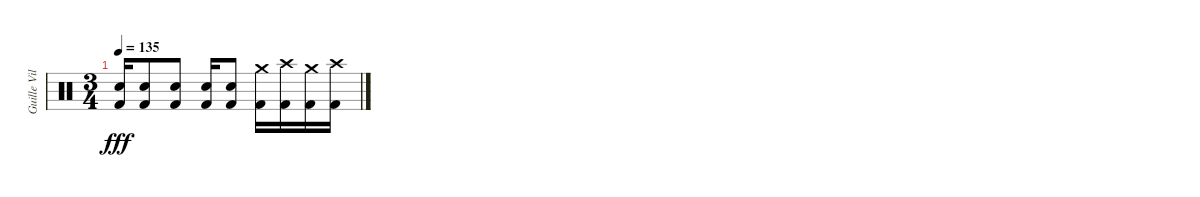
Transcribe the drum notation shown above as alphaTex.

\track ("Guille Vila" "Guille Vil") {instrument percussion}
\staff {score}
\articulation defaults
\ts (3 4)
\tempo 135
\clef neutral
\ks c
("Snare (hit) 2" "Kick (hit) 2").16{dy fff} ("Snare (hit) 2" "Kick (hit) 2").8 ("Snare (hit) 2" "Kick (hit) 2").8 ("Snare (hit) 2" "Kick (hit) 2").16 ("Snare (hit) 2" "Kick (hit) 2").8 ("Crash medium (hit)" "Kick (hit) 2").16 ("Crash high (hit)" "Kick (hit) 2").16 ("Crash medium (hit)" "Kick (hit) 2").16 ("Crash high (hit)" "Kick (hit) 2").16
